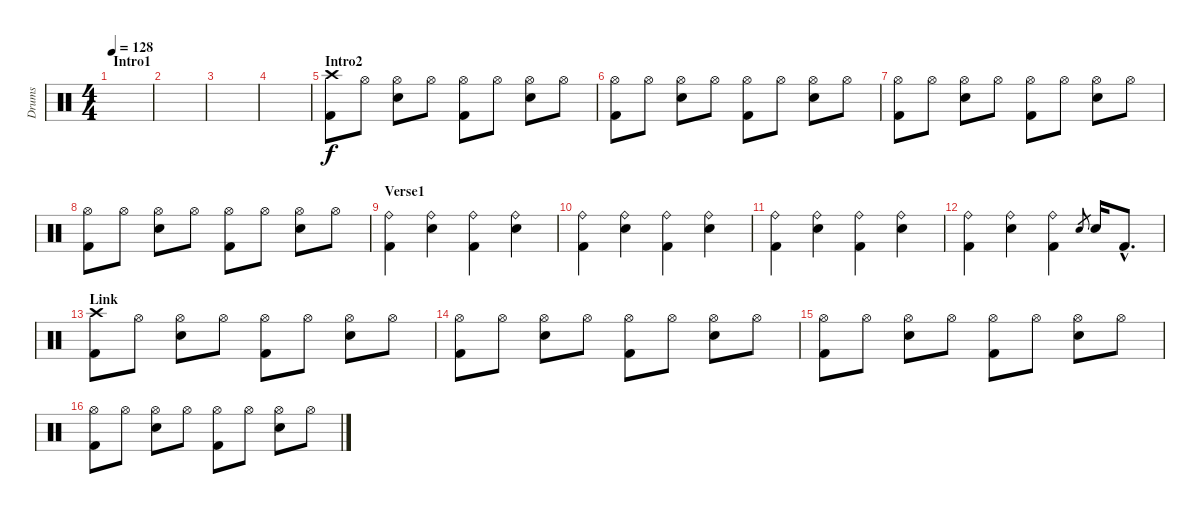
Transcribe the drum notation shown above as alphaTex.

\track ("Drums" "Drums") {instrument percussion}
\staff {score}
\articulation defaults
\ts (4 4)
\section ("" "Intro1")
\tempo 128
\clef neutral
\ks c
|
|
|
|
\section ("" "Intro2")
("Crash high (hit)" "Kick (hit) 2").8 "Hi-Hat (open)".8 ("Hi-Hat (open)" "Electric Snare (hit)").8 "Hi-Hat (open)".8 ("Hi-Hat (open)" "Kick (hit) 2").8 "Hi-Hat (open)".8 ("Hi-Hat (open)" "Electric Snare (hit)").8 "Hi-Hat (open)".8 |
("Hi-Hat (open)" "Kick (hit) 2").8 "Hi-Hat (open)".8 ("Hi-Hat (open)" "Electric Snare (hit)").8 "Hi-Hat (open)".8 ("Hi-Hat (open)" "Kick (hit) 2").8 "Hi-Hat (open)".8 ("Hi-Hat (open)" "Electric Snare (hit)").8 "Hi-Hat (open)".8 |
("Hi-Hat (open)" "Kick (hit) 2").8 "Hi-Hat (open)".8 ("Hi-Hat (open)" "Electric Snare (hit)").8 "Hi-Hat (open)".8 ("Hi-Hat (open)" "Kick (hit) 2").8 "Hi-Hat (open)".8 ("Hi-Hat (open)" "Electric Snare (hit)").8 "Hi-Hat (open)".8 |
("Hi-Hat (open)" "Kick (hit) 2").8 "Hi-Hat (open)".8 ("Hi-Hat (open)" "Electric Snare (hit)").8 "Hi-Hat (open)".8 ("Hi-Hat (open)" "Kick (hit) 2").8 "Hi-Hat (open)".8 ("Hi-Hat (open)" "Electric Snare (hit)").8 "Hi-Hat (open)".8 |
\section ("" "Verse1")
("Ride (bell)" "Kick (hit) 2").4 ("Ride (bell)" "Electric Snare (hit)").4 ("Ride (bell)" "Kick (hit) 2").4 ("Ride (bell)" "Electric Snare (hit)").4 |
("Ride (bell)" "Kick (hit) 2").4 ("Ride (bell)" "Electric Snare (hit)").4 ("Ride (bell)" "Kick (hit) 2").4 ("Ride (bell)" "Electric Snare (hit)").4 |
("Ride (bell)" "Kick (hit) 2").4 ("Ride (bell)" "Electric Snare (hit)").4 ("Ride (bell)" "Kick (hit) 2").4 ("Ride (bell)" "Electric Snare (hit)").4 |
("Ride (bell)" "Kick (hit) 2").4 ("Ride (bell)" "Electric Snare (hit)").4 ("Ride (bell)" "Kick (hit) 2").4 "Electric Snare (hit)".8{gr} "Electric Snare (hit)".16 "Kick (hit) 2"{hac}.8{d} |
\section ("" "Link")
("Crash high (hit)" "Kick (hit) 2").8 "Hi-Hat (open)".8 ("Hi-Hat (open)" "Electric Snare (hit)").8 "Hi-Hat (open)".8 ("Hi-Hat (open)" "Kick (hit) 2").8 "Hi-Hat (open)".8 ("Hi-Hat (open)" "Electric Snare (hit)").8 "Hi-Hat (open)".8 |
("Hi-Hat (open)" "Kick (hit) 2").8 "Hi-Hat (open)".8 ("Hi-Hat (open)" "Electric Snare (hit)").8 "Hi-Hat (open)".8 ("Hi-Hat (open)" "Kick (hit) 2").8 "Hi-Hat (open)".8 ("Hi-Hat (open)" "Electric Snare (hit)").8 "Hi-Hat (open)".8 |
("Hi-Hat (open)" "Kick (hit) 2").8 "Hi-Hat (open)".8 ("Hi-Hat (open)" "Electric Snare (hit)").8 "Hi-Hat (open)".8 ("Hi-Hat (open)" "Kick (hit) 2").8 "Hi-Hat (open)".8 ("Hi-Hat (open)" "Electric Snare (hit)").8 "Hi-Hat (open)".8 |
("Hi-Hat (open)" "Kick (hit) 2").8 "Hi-Hat (open)".8 ("Hi-Hat (open)" "Electric Snare (hit)").8 "Hi-Hat (open)".8 ("Hi-Hat (open)" "Kick (hit) 2").8 "Hi-Hat (open)".8 ("Hi-Hat (open)" "Electric Snare (hit)").8 "Hi-Hat (open)".8
